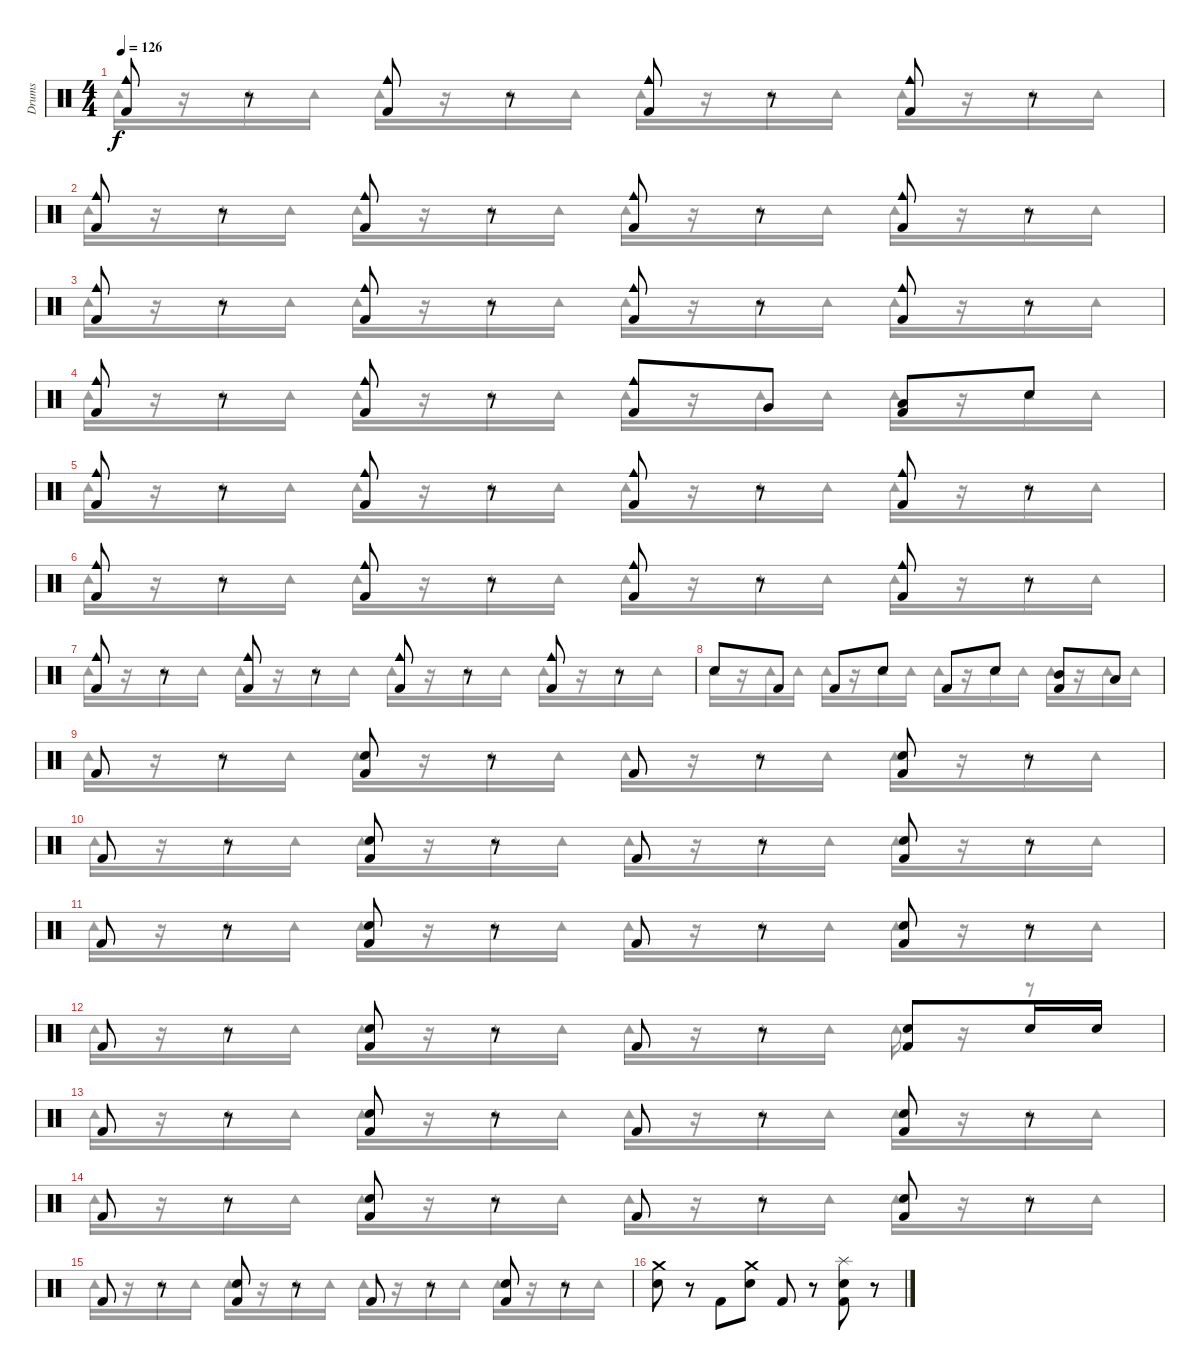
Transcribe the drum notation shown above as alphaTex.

\track ("Drums" "Drums") {instrument percussion}
\staff {score}
\articulation defaults
\voice
\ts (4 4)
\tempo 126
\clef neutral
\ks c
("Cowbell medium (hit)" "Kick (hit) 2").8{dy f} r.8 ("Cowbell medium (hit)" "Kick (hit) 2").8 r.8 ("Cowbell medium (hit)" "Kick (hit) 2").8 r.8 ("Cowbell medium (hit)" "Kick (hit) 2").8 r.8 |
("Cowbell medium (hit)" "Kick (hit) 2").8 r.8 ("Cowbell medium (hit)" "Kick (hit) 2").8 r.8 ("Cowbell medium (hit)" "Kick (hit) 2").8 r.8 ("Cowbell medium (hit)" "Kick (hit) 2").8 r.8 |
("Cowbell medium (hit)" "Kick (hit) 2").8 r.8 ("Cowbell medium (hit)" "Kick (hit) 2").8 r.8 ("Cowbell medium (hit)" "Kick (hit) 2").8 r.8 ("Cowbell medium (hit)" "Kick (hit) 2").8 r.8 |
("Cowbell medium (hit)" "Kick (hit) 2").8 r.8 ("Cowbell medium (hit)" "Kick (hit) 2").8 r.8 ("Cowbell medium (hit)" "Kick (hit) 2").8 "Very Low Tom (hit)".8 ("Low Tom (hit)" "Kick (hit) 2").8 "Electric Snare (hit)".8 |
("Cowbell medium (hit)" "Kick (hit) 2").8 r.8 ("Cowbell medium (hit)" "Kick (hit) 2").8 r.8 ("Cowbell medium (hit)" "Kick (hit) 2").8 r.8 ("Cowbell medium (hit)" "Kick (hit) 2").8 r.8 |
("Cowbell medium (hit)" "Kick (hit) 2").8 r.8 ("Cowbell medium (hit)" "Kick (hit) 2").8 r.8 ("Cowbell medium (hit)" "Kick (hit) 2").8 r.8 ("Cowbell medium (hit)" "Kick (hit) 2").8 r.8 |
("Cowbell medium (hit)" "Kick (hit) 2").8 r.8 ("Cowbell medium (hit)" "Kick (hit) 2").8 r.8 ("Cowbell medium (hit)" "Kick (hit) 2").8 r.8 ("Cowbell medium (hit)" "Kick (hit) 2").8 r.8 |
"Electric Snare (hit)".8 "Kick (hit) 2".8 "Kick (hit) 2".8 "Electric Snare (hit)".8 "Kick (hit) 2".8 "Electric Snare (hit)".8 ("Mid Tom (hit)" "Kick (hit) 2").8 "Low Tom (hit)".8 |
"Kick (hit) 2".8 r.8 ("Electric Snare (hit)" "Kick (hit) 2").8 r.8 "Kick (hit) 2".8 r.8 ("Electric Snare (hit)" "Kick (hit) 2").8 r.8 |
"Kick (hit) 2".8 r.8 ("Electric Snare (hit)" "Kick (hit) 2").8 r.8 "Kick (hit) 2".8 r.8 ("Electric Snare (hit)" "Kick (hit) 2").8 r.8 |
"Kick (hit) 2".8 r.8 ("Electric Snare (hit)" "Kick (hit) 2").8 r.8 "Kick (hit) 2".8 r.8 ("Electric Snare (hit)" "Kick (hit) 2").8 r.8 |
"Kick (hit) 2".8 r.8 ("Electric Snare (hit)" "Kick (hit) 2").8 r.8 "Kick (hit) 2".8 r.8 ("Electric Snare (hit)" "Kick (hit) 2").8 "Electric Snare (hit)".16 "Electric Snare (hit)".16 |
"Kick (hit) 2".8 r.8 ("Electric Snare (hit)" "Kick (hit) 2").8 r.8 "Kick (hit) 2".8 r.8 ("Electric Snare (hit)" "Kick (hit) 2").8 r.8 |
"Kick (hit) 2".8 r.8 ("Electric Snare (hit)" "Kick (hit) 2").8 r.8 "Kick (hit) 2".8 r.8 ("Electric Snare (hit)" "Kick (hit) 2").8 r.8 |
"Kick (hit) 2".8 r.8 ("Electric Snare (hit)" "Kick (hit) 2").8 r.8 "Kick (hit) 2".8 r.8 ("Electric Snare (hit)" "Kick (hit) 2").8 r.8 |
("Crash medium (hit)" "Electric Snare (hit)").8 r.8 "Kick (hit) 2".8 ("Crash medium (hit)" "Electric Snare (hit)").8 "Kick (hit) 2".8 r.8 ("Splash (hit)" "Electric Snare (hit)" "Kick (hit) 2").8 r.8
\voice
\clef neutral
\ottava regular
\simile none
\ks c "Tambourine (hit)".16{dy f}
r.16 "Tambourine (hit)".16 "Tambourine (hit)".16 "Tambourine (hit)".16 r.16 "Tambourine (hit)".16 "Tambourine (hit)".16 "Tambourine (hit)".16 r.16 "Tambourine (hit)".16 "Tambourine (hit)".16 "Tambourine (hit)".16 r.16 "Tambourine (hit)".16 "Tambourine (hit)".16 |
"Tambourine (hit)".16 r.16 "Tambourine (hit)".16 "Tambourine (hit)".16 "Tambourine (hit)".16 r.16 "Tambourine (hit)".16 "Tambourine (hit)".16 "Tambourine (hit)".16 r.16 "Tambourine (hit)".16 "Tambourine (hit)".16 "Tambourine (hit)".16 r.16 "Tambourine (hit)".16 "Tambourine (hit)".16 |
"Tambourine (hit)".16 r.16 "Tambourine (hit)".16 "Tambourine (hit)".16 "Tambourine (hit)".16 r.16 "Tambourine (hit)".16 "Tambourine (hit)".16 "Tambourine (hit)".16 r.16 "Tambourine (hit)".16 "Tambourine (hit)".16 "Tambourine (hit)".16 r.16 "Tambourine (hit)".16 "Tambourine (hit)".16 |
"Tambourine (hit)".16 r.16 "Tambourine (hit)".16 "Tambourine (hit)".16 "Tambourine (hit)".16 r.16 "Tambourine (hit)".16 "Tambourine (hit)".16 "Tambourine (hit)".16 r.16 "Tambourine (hit)".16 "Tambourine (hit)".16 "Tambourine (hit)".16 r.16 "Tambourine (hit)".16 "Tambourine (hit)".16 |
"Tambourine (hit)".16 r.16 "Tambourine (hit)".16 "Tambourine (hit)".16 "Tambourine (hit)".16 r.16 "Tambourine (hit)".16 "Tambourine (hit)".16 "Tambourine (hit)".16 r.16 "Tambourine (hit)".16 "Tambourine (hit)".16 "Tambourine (hit)".16 r.16 "Tambourine (hit)".16 "Tambourine (hit)".16 |
"Tambourine (hit)".16 r.16 "Tambourine (hit)".16 "Tambourine (hit)".16 "Tambourine (hit)".16 r.16 "Tambourine (hit)".16 "Tambourine (hit)".16 "Tambourine (hit)".16 r.16 "Tambourine (hit)".16 "Tambourine (hit)".16 "Tambourine (hit)".16 r.16 "Tambourine (hit)".16 "Tambourine (hit)".16 |
"Tambourine (hit)".16 r.16 "Tambourine (hit)".16 "Tambourine (hit)".16 "Tambourine (hit)".16 r.16 "Tambourine (hit)".16 "Tambourine (hit)".16 "Tambourine (hit)".16 r.16 "Tambourine (hit)".16 "Tambourine (hit)".16 "Tambourine (hit)".16 r.16 "Tambourine (hit)".16 "Tambourine (hit)".16 |
"Tambourine (hit)".16 r.16 "Tambourine (hit)".16 "Tambourine (hit)".16 "Tambourine (hit)".16 r.16 "Tambourine (hit)".16 "Tambourine (hit)".16 "Tambourine (hit)".16 r.16 "Tambourine (hit)".16 "Tambourine (hit)".16 "Tambourine (hit)".16 r.16 "Tambourine (hit)".16 "Tambourine (hit)".16 |
"Tambourine (hit)".16 r.16 "Tambourine (hit)".16 "Tambourine (hit)".16 "Tambourine (hit)".16 r.16 "Tambourine (hit)".16 "Tambourine (hit)".16 "Tambourine (hit)".16 r.16 "Tambourine (hit)".16 "Tambourine (hit)".16 "Tambourine (hit)".16 r.16 "Tambourine (hit)".16 "Tambourine (hit)".16 |
"Tambourine (hit)".16 r.16 "Tambourine (hit)".16 "Tambourine (hit)".16 "Tambourine (hit)".16 r.16 "Tambourine (hit)".16 "Tambourine (hit)".16 "Tambourine (hit)".16 r.16 "Tambourine (hit)".16 "Tambourine (hit)".16 "Tambourine (hit)".16 r.16 "Tambourine (hit)".16 "Tambourine (hit)".16 |
"Tambourine (hit)".16 r.16 "Tambourine (hit)".16 "Tambourine (hit)".16 "Tambourine (hit)".16 r.16 "Tambourine (hit)".16 "Tambourine (hit)".16 "Tambourine (hit)".16 r.16 "Tambourine (hit)".16 "Tambourine (hit)".16 "Tambourine (hit)".16 r.16 "Tambourine (hit)".16 "Tambourine (hit)".16 |
"Tambourine (hit)".16 r.16 "Tambourine (hit)".16 "Tambourine (hit)".16 "Tambourine (hit)".16 r.16 "Tambourine (hit)".16 "Tambourine (hit)".16 "Tambourine (hit)".16 r.16 "Tambourine (hit)".16 "Tambourine (hit)".16 "Tambourine (hit)".16 r.16 r.8 |
"Tambourine (hit)".16 r.16 "Tambourine (hit)".16 "Tambourine (hit)".16 "Tambourine (hit)".16 r.16 "Tambourine (hit)".16 "Tambourine (hit)".16 "Tambourine (hit)".16 r.16 "Tambourine (hit)".16 "Tambourine (hit)".16 "Tambourine (hit)".16 r.16 "Tambourine (hit)".16 "Tambourine (hit)".16 |
"Tambourine (hit)".16 r.16 "Tambourine (hit)".16 "Tambourine (hit)".16 "Tambourine (hit)".16 r.16 "Tambourine (hit)".16 "Tambourine (hit)".16 "Tambourine (hit)".16 r.16 "Tambourine (hit)".16 "Tambourine (hit)".16 "Tambourine (hit)".16 r.16 "Tambourine (hit)".16 "Tambourine (hit)".16 |
"Tambourine (hit)".16 r.16 "Tambourine (hit)".16 "Tambourine (hit)".16 "Tambourine (hit)".16 r.16 "Tambourine (hit)".16 "Tambourine (hit)".16 "Tambourine (hit)".16 r.16 "Tambourine (hit)".16 "Tambourine (hit)".16 "Tambourine (hit)".16 r.16 "Tambourine (hit)".16 "Tambourine (hit)".16 |
